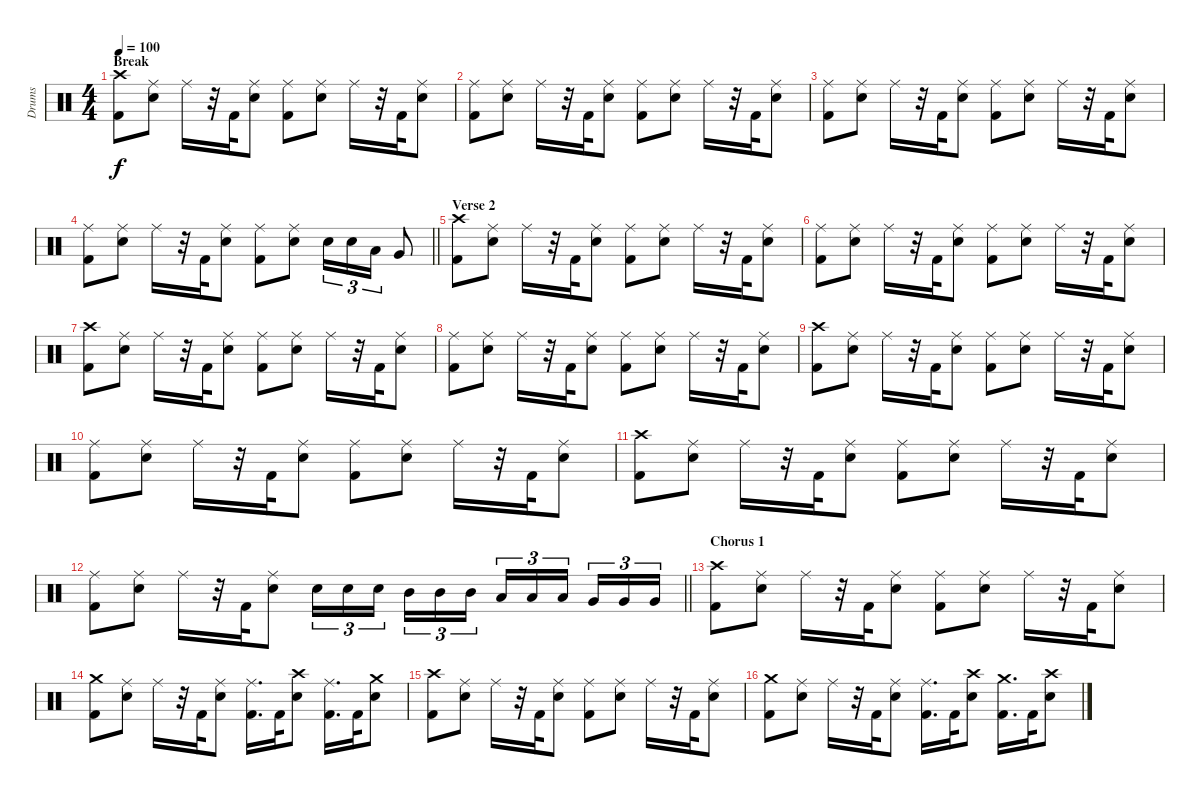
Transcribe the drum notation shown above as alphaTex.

\track ("Drums" "Drums") {instrument percussion}
\staff {score}
\articulation defaults
\ts (4 4)
\section ("" "Break")
\tempo 100
\clef neutral
\ks c
("Crash high (hit)" "Kick (hit) 2").8{dy f} ("Ride (middle)" "Snare (hit) 2").8 "Ride (middle)".16 r.32 "Kick (hit) 2".32 ("Ride (middle)" "Snare (hit) 2").8 ("Ride (middle)" "Kick (hit) 2").8 ("Ride (middle)" "Snare (hit) 2").8 "Ride (middle)".16 r.32 "Kick (hit) 2".32 ("Ride (middle)" "Snare (hit) 2").8 |
("Ride (middle)" "Kick (hit) 2").8 ("Ride (middle)" "Snare (hit) 2").8 "Ride (middle)".16 r.32 "Kick (hit) 2".32 ("Ride (middle)" "Snare (hit) 2").8 ("Ride (middle)" "Kick (hit) 2").8 ("Ride (middle)" "Snare (hit) 2").8 "Ride (middle)".16 r.32 "Kick (hit) 2".32 ("Ride (middle)" "Snare (hit) 2").8 |
("Ride (middle)" "Kick (hit) 2").8 ("Ride (middle)" "Snare (hit) 2").8 "Ride (middle)".16 r.32 "Kick (hit) 2".32 ("Ride (middle)" "Snare (hit) 2").8 ("Ride (middle)" "Kick (hit) 2").8 ("Ride (middle)" "Snare (hit) 2").8 "Ride (middle)".16 r.32 "Kick (hit) 2".32 ("Ride (middle)" "Snare (hit) 2").8 |
\barLineRight lightlight
("Ride (middle)" "Kick (hit) 2").8 ("Ride (middle)" "Snare (hit) 2").8 "Ride (middle)".16 r.32 "Kick (hit) 2".32 ("Ride (middle)" "Snare (hit) 2").8 ("Ride (middle)" "Kick (hit) 2").8 ("Ride (middle)" "Snare (hit) 2").8 "Snare (hit) 2".16{tu (3 2)} "Snare (hit) 2".16{tu (3 2)} "Low Tom (hit)".16{tu (3 2)} "Very Low Tom (hit)".8 |
\section ("" "Verse 2")
("Crash high (hit)" "Kick (hit) 2").8 ("Ride (middle)" "Snare (hit) 2").8 "Ride (middle)".16 r.32 "Kick (hit) 2".32 ("Ride (middle)" "Snare (hit) 2").8 ("Ride (middle)" "Kick (hit) 2").8 ("Ride (middle)" "Snare (hit) 2").8 "Ride (middle)".16 r.32 "Kick (hit) 2".32 ("Ride (middle)" "Snare (hit) 2").8 |
("Ride (middle)" "Kick (hit) 2").8 ("Ride (middle)" "Snare (hit) 2").8 "Ride (middle)".16 r.32 "Kick (hit) 2".32 ("Ride (middle)" "Snare (hit) 2").8 ("Ride (middle)" "Kick (hit) 2").8 ("Ride (middle)" "Snare (hit) 2").8 "Ride (middle)".16 r.32 "Kick (hit) 2".32 ("Ride (middle)" "Snare (hit) 2").8 |
("Crash high (hit)" "Kick (hit) 2").8 ("Ride (middle)" "Snare (hit) 2").8 "Ride (middle)".16 r.32 "Kick (hit) 2".32 ("Ride (middle)" "Snare (hit) 2").8 ("Ride (middle)" "Kick (hit) 2").8 ("Ride (middle)" "Snare (hit) 2").8 "Ride (middle)".16 r.32 "Kick (hit) 2".32 ("Ride (middle)" "Snare (hit) 2").8 |
("Ride (middle)" "Kick (hit) 2").8 ("Ride (middle)" "Snare (hit) 2").8 "Ride (middle)".16 r.32 "Kick (hit) 2".32 ("Ride (middle)" "Snare (hit) 2").8 ("Ride (middle)" "Kick (hit) 2").8 ("Ride (middle)" "Snare (hit) 2").8 "Ride (middle)".16 r.32 "Kick (hit) 2".32 ("Ride (middle)" "Snare (hit) 2").8 |
("Crash high (hit)" "Kick (hit) 2").8 ("Ride (middle)" "Snare (hit) 2").8 "Ride (middle)".16 r.32 "Kick (hit) 2".32 ("Ride (middle)" "Snare (hit) 2").8 ("Ride (middle)" "Kick (hit) 2").8 ("Ride (middle)" "Snare (hit) 2").8 "Ride (middle)".16 r.32 "Kick (hit) 2".32 ("Ride (middle)" "Snare (hit) 2").8 |
("Ride (middle)" "Kick (hit) 2").8 ("Ride (middle)" "Snare (hit) 2").8 "Ride (middle)".16 r.32 "Kick (hit) 2".32 ("Ride (middle)" "Snare (hit) 2").8 ("Ride (middle)" "Kick (hit) 2").8 ("Ride (middle)" "Snare (hit) 2").8 "Ride (middle)".16 r.32 "Kick (hit) 2".32 ("Ride (middle)" "Snare (hit) 2").8 |
("Crash high (hit)" "Kick (hit) 2").8 ("Ride (middle)" "Snare (hit) 2").8 "Ride (middle)".16 r.32 "Kick (hit) 2".32 ("Ride (middle)" "Snare (hit) 2").8 ("Ride (middle)" "Kick (hit) 2").8 ("Ride (middle)" "Snare (hit) 2").8 "Ride (middle)".16 r.32 "Kick (hit) 2".32 ("Ride (middle)" "Snare (hit) 2").8 |
\barLineRight lightlight
("Ride (middle)" "Kick (hit) 2").8 ("Ride (middle)" "Snare (hit) 2").8 "Ride (middle)".16 r.32 "Kick (hit) 2".32 ("Ride (middle)" "Snare (hit) 2").8 "Snare (hit) 2".16{tu (3 2)} "Snare (hit) 2".16{tu (3 2)} "Snare (hit) 2".16{tu (3 2) beam splitsecondary} "Mid Tom (hit)".16{tu (3 2)} "Mid Tom (hit)".16{tu (3 2)} "Mid Tom (hit)".16{tu (3 2)} "Low Tom (hit)".16{tu (3 2)} "Low Tom (hit)".16{tu (3 2)} "Low Tom (hit)".16{tu (3 2) beam splitsecondary} "Very Low Tom (hit)".16{tu (3 2)} "Very Low Tom (hit)".16{tu (3 2)} "Very Low Tom (hit)".16{tu (3 2)} |
\section ("" "Chorus 1")
("Crash high (hit)" "Kick (hit) 2").8 ("Ride (middle)" "Snare (hit) 2").8 "Ride (middle)".16 r.32 "Kick (hit) 2".32 ("Ride (middle)" "Snare (hit) 2").8 ("Ride (middle)" "Kick (hit) 2").8 ("Ride (middle)" "Snare (hit) 2").8 "Ride (middle)".16 r.32 "Kick (hit) 2".32 ("Ride (middle)" "Snare (hit) 2").8 |
("Crash medium (hit)" "Kick (hit) 2").8 ("Ride (middle)" "Snare (hit) 2").8 "Ride (middle)".16 r.32 "Kick (hit) 2".32 ("Ride (middle)" "Snare (hit) 2").8 ("Ride (middle)" "Kick (hit) 2").16{d} "Kick (hit) 2".32 ("Crash high (hit)" "Snare (hit) 2").8 ("Ride (middle)" "Kick (hit) 2").16{d} "Kick (hit) 2".32 ("Crash medium (hit)" "Snare (hit) 2").8 |
("Crash high (hit)" "Kick (hit) 2").8 ("Ride (middle)" "Snare (hit) 2").8 "Ride (middle)".16 r.32 "Kick (hit) 2".32 ("Ride (middle)" "Snare (hit) 2").8 ("Ride (middle)" "Kick (hit) 2").8 ("Ride (middle)" "Snare (hit) 2").8 "Ride (middle)".16 r.32 "Kick (hit) 2".32 ("Ride (middle)" "Snare (hit) 2").8 |
("Crash medium (hit)" "Kick (hit) 2").8 ("Ride (middle)" "Snare (hit) 2").8 "Ride (middle)".16 r.32 "Kick (hit) 2".32 ("Ride (middle)" "Snare (hit) 2").8 ("Ride (middle)" "Kick (hit) 2").16{d} "Kick (hit) 2".32 ("Crash high (hit)" "Snare (hit) 2").8 ("Crash medium (hit)" "Kick (hit) 2").16{d} "Kick (hit) 2".32 ("Crash high (hit)" "Snare (hit) 2").8
